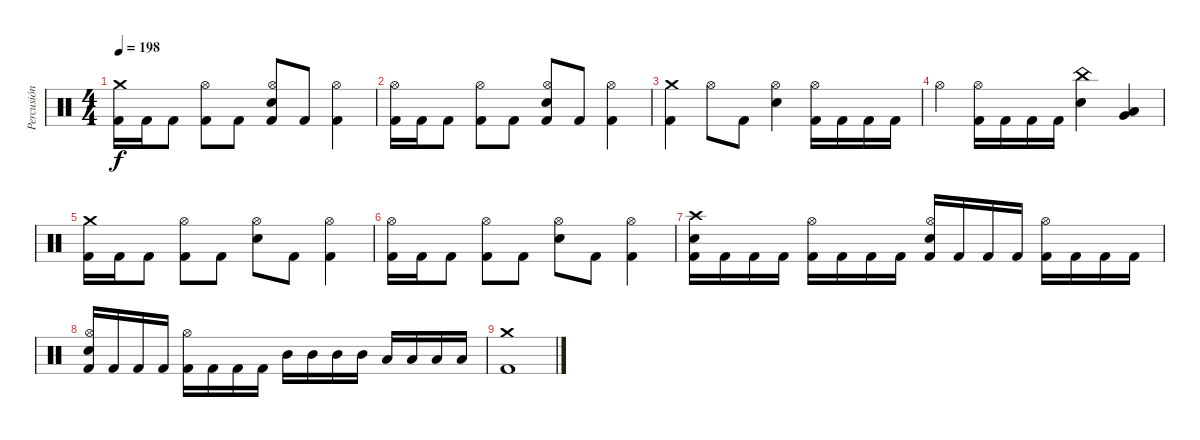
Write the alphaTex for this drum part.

\track ("Percusión" "Percusión") {instrument percussion}
\staff {score}
\articulation defaults
\ts (4 4)
\tempo 198
\clef neutral
\ks c
("Crash medium (hit)" "Kick (hit) 2").16{dy f} "Kick (hit) 2".16 "Kick (hit) 2".8 ("Hi-Hat (open)" "Kick (hit) 2").8 "Kick (hit) 2".8 ("Hi-Hat (open)" "Electric Snare (hit)" "Kick (hit) 2").8 "Kick (hit) 2".8 ("Hi-Hat (open)" "Kick (hit) 2").4 |
("Hi-Hat (open)" "Kick (hit) 2").16 "Kick (hit) 2".16 "Kick (hit) 2".8 ("Hi-Hat (open)" "Kick (hit) 2").8 "Kick (hit) 2".8 ("Hi-Hat (open)" "Electric Snare (hit)" "Kick (hit) 2").8 "Kick (hit) 2".8 ("Hi-Hat (open)" "Kick (hit) 2").4 |
("Crash medium (hit)" "Kick (hit) 2").4 "Hi-Hat (open)".8 "Kick (hit) 2".8 ("Hi-Hat (open)" "Electric Snare (hit)").4 ("Hi-Hat (open)" "Kick (hit) 2").16 "Kick (hit) 2".16 "Kick (hit) 2".16 "Kick (hit) 2".16 |
"Hi-Hat (open)".4 ("Hi-Hat (open)" "Kick (hit) 2").16 "Kick (hit) 2".16 "Kick (hit) 2".16 "Kick (hit) 2".16 ("China (hit)" "Electric Snare (hit)").4 ("Very Low Tom (hit)" "Low Floor Tom (hit)").4 |
("Crash medium (hit)" "Kick (hit) 2").16 "Kick (hit) 2".16 "Kick (hit) 2".8 ("Hi-Hat (open)" "Kick (hit) 2").8 "Kick (hit) 2".8 ("Hi-Hat (open)" "Electric Snare (hit)").8 "Kick (hit) 2".8 ("Hi-Hat (open)" "Kick (hit) 2").4 |
("Hi-Hat (open)" "Kick (hit) 2").16 "Kick (hit) 2".16 "Kick (hit) 2".8 ("Hi-Hat (open)" "Kick (hit) 2").8 "Kick (hit) 2".8 ("Hi-Hat (open)" "Electric Snare (hit)").8 "Kick (hit) 2".8 ("Hi-Hat (open)" "Kick (hit) 2").4 |
("Crash high (hit)" "Electric Snare (hit)" "Kick (hit) 2").16 "Kick (hit) 2".16 "Kick (hit) 2".16 "Kick (hit) 2".16 ("Hi-Hat (open)" "Kick (hit) 2").16 "Kick (hit) 2".16 "Kick (hit) 2".16 "Kick (hit) 2".16 ("Hi-Hat (open)" "Electric Snare (hit)" "Kick (hit) 2").16 "Kick (hit) 2".16 "Kick (hit) 2".16 "Kick (hit) 2".16 ("Hi-Hat (open)" "Kick (hit) 2").16 "Kick (hit) 2".16 "Kick (hit) 2".16 "Kick (hit) 2".16 |
("Hi-Hat (open)" "Electric Snare (hit)" "Kick (hit) 2").16 "Kick (hit) 2".16 "Kick (hit) 2".16 "Kick (hit) 2".16 ("Hi-Hat (open)" "Kick (hit) 2").16 "Kick (hit) 2".16 "Kick (hit) 2".16 "Kick (hit) 2".16 "Mid Tom (hit)".16 "Mid Tom (hit)".16 "Mid Tom (hit)".16 "Mid Tom (hit)".16 "Low Tom (hit)".16 "Low Tom (hit)".16 "Low Tom (hit)".16 "Low Tom (hit)".16 |
("Crash medium (hit)" "Kick (hit) 2").1
